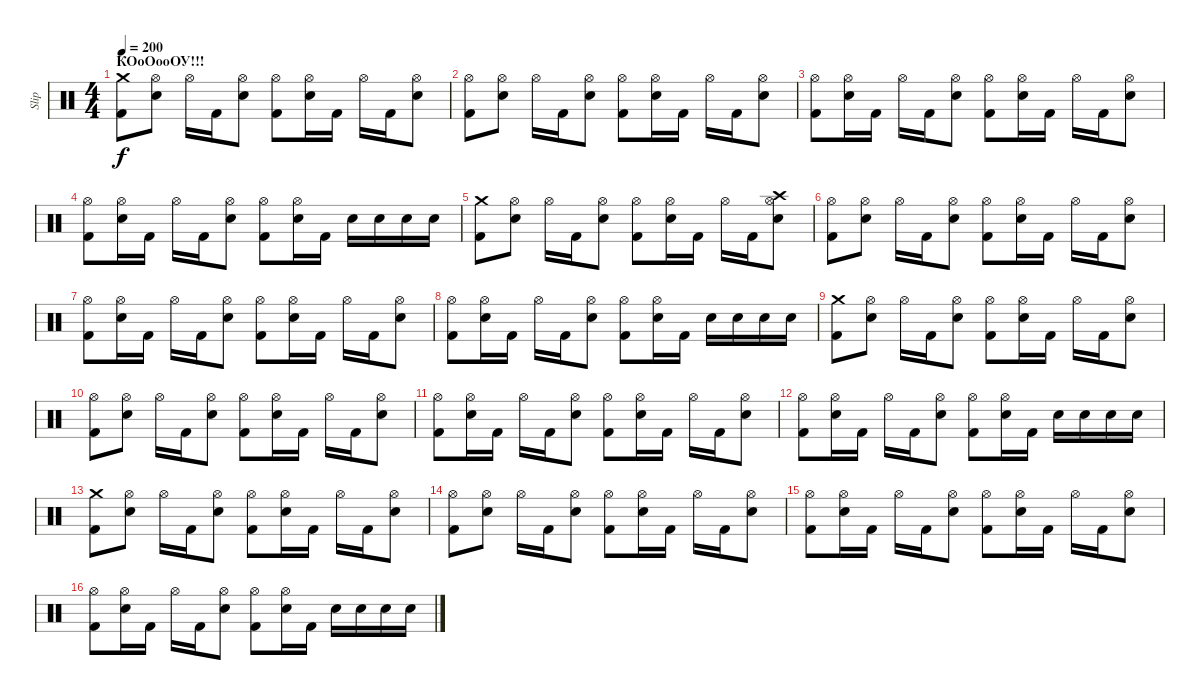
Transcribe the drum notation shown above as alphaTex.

\track ("Slip" "Slip") {instrument percussion}
\staff {score}
\articulation defaults
\ts (4 4)
\section ("" "КОоОооОУ!!!")
\tempo 200
\clef neutral
\ks c
("Kick (hit) 2" "Crash medium (hit)").8{dy f} ("Electric Snare (hit)" "Hi-Hat (open)").8 "Hi-Hat (open)".16 "Kick (hit) 2".16 ("Electric Snare (hit)" "Hi-Hat (open)").8 ("Kick (hit) 2" "Hi-Hat (open)").8 ("Electric Snare (hit)" "Hi-Hat (open)").16 "Kick (hit) 2".16 "Hi-Hat (open)".16 "Kick (hit) 2".16 ("Electric Snare (hit)" "Hi-Hat (open)").8 |
("Kick (hit) 2" "Hi-Hat (open)").8 ("Electric Snare (hit)" "Hi-Hat (open)").8 "Hi-Hat (open)".16 "Kick (hit) 2".16 ("Electric Snare (hit)" "Hi-Hat (open)").8 ("Kick (hit) 2" "Hi-Hat (open)").8 ("Electric Snare (hit)" "Hi-Hat (open)").16 "Kick (hit) 2".16 "Hi-Hat (open)".16 "Kick (hit) 2".16 ("Electric Snare (hit)" "Hi-Hat (open)").8 |
("Kick (hit) 2" "Hi-Hat (open)").8 ("Electric Snare (hit)" "Hi-Hat (open)").16 "Kick (hit) 2".16 "Hi-Hat (open)".16 "Kick (hit) 2".16 ("Electric Snare (hit)" "Hi-Hat (open)").8 ("Kick (hit) 2" "Hi-Hat (open)").8 ("Electric Snare (hit)" "Hi-Hat (open)").16 "Kick (hit) 2".16 "Hi-Hat (open)".16 "Kick (hit) 2".16 ("Electric Snare (hit)" "Hi-Hat (open)").8 |
("Kick (hit) 2" "Hi-Hat (open)").8 ("Electric Snare (hit)" "Hi-Hat (open)").16 "Kick (hit) 2".16 "Hi-Hat (open)".16 "Kick (hit) 2".16 ("Electric Snare (hit)" "Hi-Hat (open)").8 ("Kick (hit) 2" "Hi-Hat (open)").8 ("Electric Snare (hit)" "Hi-Hat (open)").16 "Kick (hit) 2".16 "Electric Snare (hit)".16 "Electric Snare (hit)".16 "Electric Snare (hit)".16 "Electric Snare (hit)".16 |
("Kick (hit) 2" "Crash medium (hit)").8 ("Electric Snare (hit)" "Hi-Hat (open)").8 "Hi-Hat (open)".16 "Kick (hit) 2".16 ("Electric Snare (hit)" "Hi-Hat (open)").8 ("Kick (hit) 2" "Hi-Hat (open)").8 ("Electric Snare (hit)" "Hi-Hat (open)").16 "Kick (hit) 2".16 "Hi-Hat (open)".16 "Kick (hit) 2".16 ("Electric Snare (hit)" "Hi-Hat (open)" "Crash high (hit)").8 |
("Kick (hit) 2" "Hi-Hat (open)").8 ("Electric Snare (hit)" "Hi-Hat (open)").8 "Hi-Hat (open)".16 "Kick (hit) 2".16 ("Electric Snare (hit)" "Hi-Hat (open)").8 ("Kick (hit) 2" "Hi-Hat (open)").8 ("Electric Snare (hit)" "Hi-Hat (open)").16 "Kick (hit) 2".16 "Hi-Hat (open)".16 "Kick (hit) 2".16 ("Electric Snare (hit)" "Hi-Hat (open)").8 |
("Kick (hit) 2" "Hi-Hat (open)").8 ("Electric Snare (hit)" "Hi-Hat (open)").16 "Kick (hit) 2".16 "Hi-Hat (open)".16 "Kick (hit) 2".16 ("Electric Snare (hit)" "Hi-Hat (open)").8 ("Kick (hit) 2" "Hi-Hat (open)").8 ("Electric Snare (hit)" "Hi-Hat (open)").16 "Kick (hit) 2".16 "Hi-Hat (open)".16 "Kick (hit) 2".16 ("Electric Snare (hit)" "Hi-Hat (open)").8 |
("Kick (hit) 2" "Hi-Hat (open)").8 ("Electric Snare (hit)" "Hi-Hat (open)").16 "Kick (hit) 2".16 "Hi-Hat (open)".16 "Kick (hit) 2".16 ("Electric Snare (hit)" "Hi-Hat (open)").8 ("Kick (hit) 2" "Hi-Hat (open)").8 ("Electric Snare (hit)" "Hi-Hat (open)").16 "Kick (hit) 2".16 "Electric Snare (hit)".16 "Electric Snare (hit)".16 "Electric Snare (hit)".16 "Electric Snare (hit)".16 |
("Kick (hit) 2" "Crash medium (hit)").8 ("Electric Snare (hit)" "Hi-Hat (open)").8 "Hi-Hat (open)".16 "Kick (hit) 2".16 ("Electric Snare (hit)" "Hi-Hat (open)").8 ("Kick (hit) 2" "Hi-Hat (open)").8 ("Electric Snare (hit)" "Hi-Hat (open)").16 "Kick (hit) 2".16 "Hi-Hat (open)".16 "Kick (hit) 2".16 ("Electric Snare (hit)" "Hi-Hat (open)").8 |
("Kick (hit) 2" "Hi-Hat (open)").8 ("Electric Snare (hit)" "Hi-Hat (open)").8 "Hi-Hat (open)".16 "Kick (hit) 2".16 ("Electric Snare (hit)" "Hi-Hat (open)").8 ("Kick (hit) 2" "Hi-Hat (open)").8 ("Electric Snare (hit)" "Hi-Hat (open)").16 "Kick (hit) 2".16 "Hi-Hat (open)".16 "Kick (hit) 2".16 ("Electric Snare (hit)" "Hi-Hat (open)").8 |
("Kick (hit) 2" "Hi-Hat (open)").8 ("Electric Snare (hit)" "Hi-Hat (open)").16 "Kick (hit) 2".16 "Hi-Hat (open)".16 "Kick (hit) 2".16 ("Electric Snare (hit)" "Hi-Hat (open)").8 ("Kick (hit) 2" "Hi-Hat (open)").8 ("Electric Snare (hit)" "Hi-Hat (open)").16 "Kick (hit) 2".16 "Hi-Hat (open)".16 "Kick (hit) 2".16 ("Electric Snare (hit)" "Hi-Hat (open)").8 |
("Kick (hit) 2" "Hi-Hat (open)").8 ("Electric Snare (hit)" "Hi-Hat (open)").16 "Kick (hit) 2".16 "Hi-Hat (open)".16 "Kick (hit) 2".16 ("Electric Snare (hit)" "Hi-Hat (open)").8 ("Kick (hit) 2" "Hi-Hat (open)").8 ("Electric Snare (hit)" "Hi-Hat (open)").16 "Kick (hit) 2".16 "Electric Snare (hit)".16 "Electric Snare (hit)".16 "Electric Snare (hit)".16 "Electric Snare (hit)".16 |
("Kick (hit) 2" "Crash medium (hit)").8 ("Electric Snare (hit)" "Hi-Hat (open)").8 "Hi-Hat (open)".16 "Kick (hit) 2".16 ("Electric Snare (hit)" "Hi-Hat (open)").8 ("Kick (hit) 2" "Hi-Hat (open)").8 ("Electric Snare (hit)" "Hi-Hat (open)").16 "Kick (hit) 2".16 "Hi-Hat (open)".16 "Kick (hit) 2".16 ("Electric Snare (hit)" "Hi-Hat (open)").8 |
("Kick (hit) 2" "Hi-Hat (open)").8 ("Electric Snare (hit)" "Hi-Hat (open)").8 "Hi-Hat (open)".16 "Kick (hit) 2".16 ("Electric Snare (hit)" "Hi-Hat (open)").8 ("Kick (hit) 2" "Hi-Hat (open)").8 ("Electric Snare (hit)" "Hi-Hat (open)").16 "Kick (hit) 2".16 "Hi-Hat (open)".16 "Kick (hit) 2".16 ("Electric Snare (hit)" "Hi-Hat (open)").8 |
("Kick (hit) 2" "Hi-Hat (open)").8 ("Electric Snare (hit)" "Hi-Hat (open)").16 "Kick (hit) 2".16 "Hi-Hat (open)".16 "Kick (hit) 2".16 ("Electric Snare (hit)" "Hi-Hat (open)").8 ("Kick (hit) 2" "Hi-Hat (open)").8 ("Electric Snare (hit)" "Hi-Hat (open)").16 "Kick (hit) 2".16 "Hi-Hat (open)".16 "Kick (hit) 2".16 ("Electric Snare (hit)" "Hi-Hat (open)").8 |
("Kick (hit) 2" "Hi-Hat (open)").8 ("Electric Snare (hit)" "Hi-Hat (open)").16 "Kick (hit) 2".16 "Hi-Hat (open)".16 "Kick (hit) 2".16 ("Electric Snare (hit)" "Hi-Hat (open)").8 ("Kick (hit) 2" "Hi-Hat (open)").8 ("Electric Snare (hit)" "Hi-Hat (open)").16 "Kick (hit) 2".16 "Electric Snare (hit)".16 "Electric Snare (hit)".16 "Electric Snare (hit)".16 "Electric Snare (hit)".16
